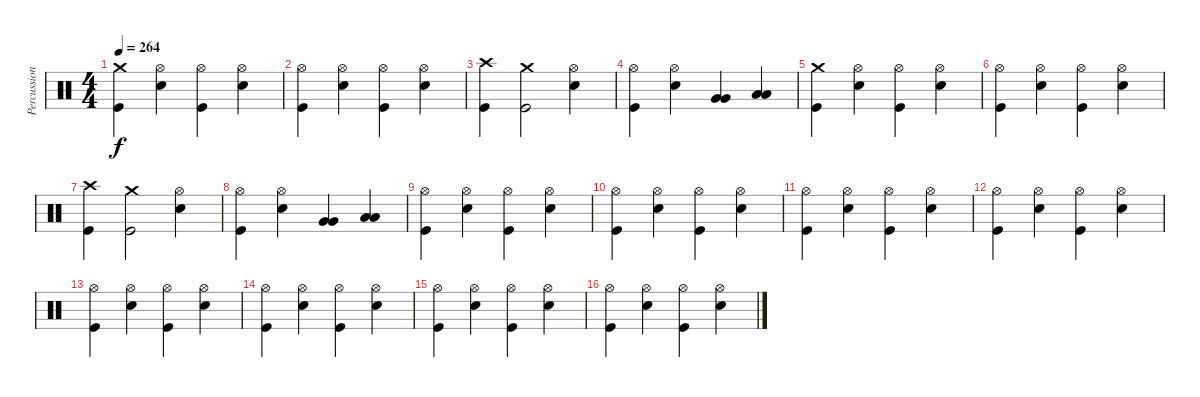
\track ("Percussion" "Percussion") {instrument percussion}
\staff {score}
\articulation defaults
\ts (4 4)
\tempo 264
\clef neutral
\ks c
("Crash medium (hit)" "Kick (hit)").4{dy f} ("Hi-Hat (open)" "Snare (hit) 2").4 ("Hi-Hat (open)" "Kick (hit)").4 ("Hi-Hat (open)" "Snare (hit) 2").4 |
("Hi-Hat (open)" "Kick (hit)").4 ("Hi-Hat (open)" "Snare (hit) 2").4 ("Hi-Hat (open)" "Kick (hit)").4 ("Hi-Hat (open)" "Snare (hit) 2").4 |
("Crash high (hit)" "Kick (hit)").4 ("Crash medium (hit)" "Kick (hit)").2 ("Hi-Hat (open)" "Snare (hit) 2").4 |
("Hi-Hat (open)" "Kick (hit)").4 ("Hi-Hat (open)" "Snare (hit) 2").4 ("Very Low Tom (hit)" "Very Low Tom (hit)").4 ("Low Floor Tom (hit)" "Low Floor Tom (hit)").4 |
("Crash medium (hit)" "Kick (hit)").4 ("Hi-Hat (open)" "Snare (hit) 2").4 ("Hi-Hat (open)" "Kick (hit)").4 ("Hi-Hat (open)" "Snare (hit) 2").4 |
("Hi-Hat (open)" "Kick (hit)").4 ("Hi-Hat (open)" "Snare (hit) 2").4 ("Hi-Hat (open)" "Kick (hit)").4 ("Hi-Hat (open)" "Snare (hit) 2").4 |
("Crash high (hit)" "Kick (hit)").4 ("Crash medium (hit)" "Kick (hit)").2 ("Hi-Hat (open)" "Snare (hit) 2").4 |
("Hi-Hat (open)" "Kick (hit)").4 ("Hi-Hat (open)" "Snare (hit) 2").4 ("Very Low Tom (hit)" "Very Low Tom (hit)").4 ("Low Floor Tom (hit)" "Low Floor Tom (hit)").4 |
("Hi-Hat (open)" "Kick (hit)").4 ("Hi-Hat (open)" "Snare (hit) 2").4 ("Hi-Hat (open)" "Kick (hit)").4 ("Hi-Hat (open)" "Snare (hit) 2").4 |
("Hi-Hat (open)" "Kick (hit)").4 ("Hi-Hat (open)" "Snare (hit) 2").4 ("Hi-Hat (open)" "Kick (hit)").4 ("Hi-Hat (open)" "Snare (hit) 2").4 |
("Hi-Hat (open)" "Kick (hit)").4 ("Hi-Hat (open)" "Snare (hit) 2").4 ("Hi-Hat (open)" "Kick (hit)").4 ("Hi-Hat (open)" "Snare (hit) 2").4 |
("Hi-Hat (open)" "Kick (hit)").4 ("Hi-Hat (open)" "Snare (hit) 2").4 ("Hi-Hat (open)" "Kick (hit)").4 ("Hi-Hat (open)" "Snare (hit) 2").4 |
("Hi-Hat (open)" "Kick (hit)").4 ("Hi-Hat (open)" "Snare (hit) 2").4 ("Hi-Hat (open)" "Kick (hit)").4 ("Hi-Hat (open)" "Snare (hit) 2").4 |
("Hi-Hat (open)" "Kick (hit)").4 ("Hi-Hat (open)" "Snare (hit) 2").4 ("Hi-Hat (open)" "Kick (hit)").4 ("Hi-Hat (open)" "Snare (hit) 2").4 |
("Hi-Hat (open)" "Kick (hit)").4 ("Hi-Hat (open)" "Snare (hit) 2").4 ("Hi-Hat (open)" "Kick (hit)").4 ("Hi-Hat (open)" "Snare (hit) 2").4 |
("Hi-Hat (open)" "Kick (hit)").4 ("Hi-Hat (open)" "Snare (hit) 2").4 ("Hi-Hat (open)" "Kick (hit)").4 ("Hi-Hat (open)" "Snare (hit) 2").4
